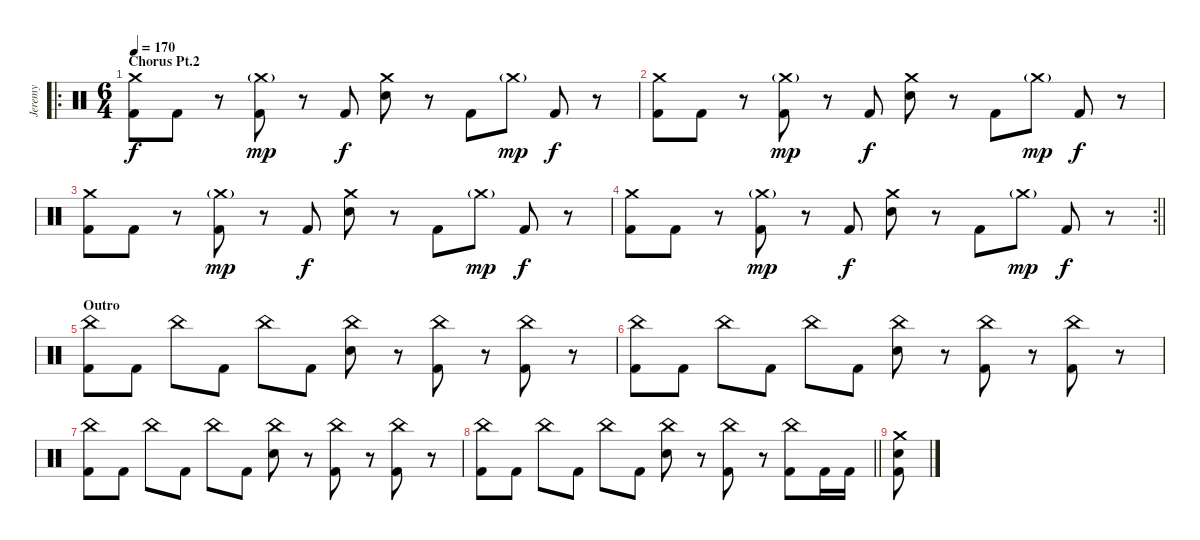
\track ("Jeremy" "Jeremy") {instrument percussion}
\staff {score}
\articulation defaults
\ro
\ts (6 4)
\section ("" "Chorus Pt.2")
\tempo 170
\clef neutral
\ks c
("Crash medium (hit)" "Kick (hit) 2").8{dy f} "Kick (hit) 2".8 r.8 ("Crash medium (hit)"{g} "Kick (hit) 2").8{dy mp} r.8 "Kick (hit) 2".8{dy f} ("Crash medium (hit)" "Electric Snare (hit)").8 r.8 "Kick (hit) 2".8 "Crash medium (hit)"{g}.8{dy mp} "Kick (hit) 2".8{dy f} r.8 |
("Crash medium (hit)" "Kick (hit) 2").8 "Kick (hit) 2".8 r.8 ("Crash medium (hit)"{g} "Kick (hit) 2").8{dy mp} r.8 "Kick (hit) 2".8{dy f} ("Crash medium (hit)" "Electric Snare (hit)").8 r.8 "Kick (hit) 2".8 "Crash medium (hit)"{g}.8{dy mp} "Kick (hit) 2".8{dy f} r.8 |
("Crash medium (hit)" "Kick (hit) 2").8 "Kick (hit) 2".8 r.8 ("Crash medium (hit)"{g} "Kick (hit) 2").8{dy mp} r.8 "Kick (hit) 2".8{dy f} ("Crash medium (hit)" "Electric Snare (hit)").8 r.8 "Kick (hit) 2".8 "Crash medium (hit)"{g}.8{dy mp} "Kick (hit) 2".8{dy f} r.8 |
\rc 2
\barLineRight lightlight
("Crash medium (hit)" "Kick (hit) 2").8 "Kick (hit) 2".8 r.8 ("Crash medium (hit)"{g} "Kick (hit) 2").8{dy mp} r.8 "Kick (hit) 2".8{dy f} ("Crash medium (hit)" "Electric Snare (hit)").8 r.8 "Kick (hit) 2".8 "Crash medium (hit)"{g}.8{dy mp} "Kick (hit) 2".8{dy f} r.8 |
\section ("" "Outro")
("China (hit)" "Kick (hit) 2").8 "Kick (hit) 2".8 "China (hit)".8 "Kick (hit) 2".8 "China (hit)".8 "Kick (hit) 2".8 ("China (hit)" "Electric Snare (hit)").8 r.8 ("China (hit)" "Kick (hit) 2").8 r.8 ("China (hit)" "Kick (hit) 2").8 r.8 |
("China (hit)" "Kick (hit) 2").8 "Kick (hit) 2".8 "China (hit)".8 "Kick (hit) 2".8 "China (hit)".8 "Kick (hit) 2".8 ("China (hit)" "Electric Snare (hit)").8 r.8 ("China (hit)" "Kick (hit) 2").8 r.8 ("China (hit)" "Kick (hit) 2").8 r.8 |
("China (hit)" "Kick (hit) 2").8 "Kick (hit) 2".8 "China (hit)".8 "Kick (hit) 2".8 "China (hit)".8 "Kick (hit) 2".8 ("China (hit)" "Electric Snare (hit)").8 r.8 ("China (hit)" "Kick (hit) 2").8 r.8 ("China (hit)" "Kick (hit) 2").8 r.8 |
\barLineRight lightlight
("China (hit)" "Kick (hit) 2").8 "Kick (hit) 2".8 "China (hit)".8 "Kick (hit) 2".8 "China (hit)".8 "Kick (hit) 2".8 ("China (hit)" "Electric Snare (hit)").8 r.8 ("China (hit)" "Kick (hit) 2").8 r.8 ("China (hit)" "Kick (hit) 2").8 "Kick (hit) 2".16 "Kick (hit) 2".16 |
("Crash medium (hit)" "Snare (hit) 2" "Kick (hit) 2").8
